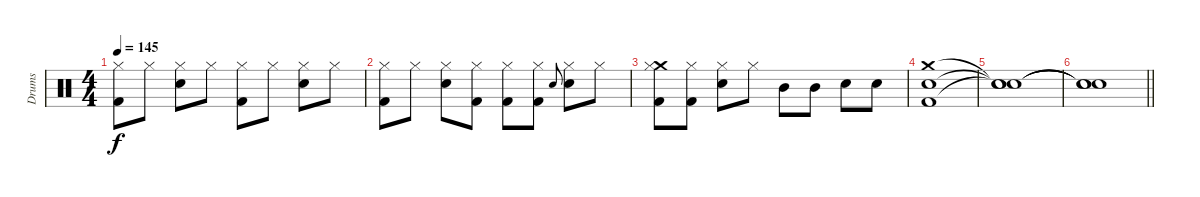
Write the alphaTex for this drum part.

\track ("Drums" "Drums") {instrument percussion}
\staff {score}
\articulation defaults
\ts (4 4)
\tempo 145
\clef neutral
\ks c
("Hi-Hat (closed)" "Kick (hit) 2").8{dy f} "Hi-Hat (closed)".8 ("Hi-Hat (closed)" "Electric Snare (hit)").8 "Hi-Hat (closed)".8 ("Hi-Hat (closed)" "Kick (hit) 2").8 "Hi-Hat (closed)".8 ("Hi-Hat (closed)" "Electric Snare (hit)").8 "Hi-Hat (closed)".8 |
("Hi-Hat (closed)" "Kick (hit) 2").8 "Hi-Hat (closed)".8 ("Hi-Hat (closed)" "Electric Snare (hit)").8 ("Hi-Hat (closed)" "Kick (hit) 2").8 ("Hi-Hat (closed)" "Kick (hit) 2").8 ("Hi-Hat (closed)" "Kick (hit) 2").8 "Electric Snare (hit)".8{gr onbeat} ("Hi-Hat (closed)" "Electric Snare (hit)").8 "Hi-Hat (closed)".8 |
("Crash medium (hit)" "Hi-Hat (closed)" "Kick (hit) 2").8 ("Hi-Hat (closed)" "Kick (hit) 2").8 ("Hi-Hat (closed)" "Electric Snare (hit)").8 "Hi-Hat (closed)".8 "Mid Tom (hit)".8 "Mid Tom (hit)".8 "Electric Snare (hit)".8 "Electric Snare (hit)".8 |
("Crash medium (hit)" "Electric Snare (hit)" "Kick (hit) 2").1 |
("Snare (hit)"{t} "Snare (hit)"{t} "Snare (hit)"{t}).1 |
\barLineRight lightlight
("Snare (hit)"{t} "Snare (hit)"{t} "Snare (hit)"{t}).1
